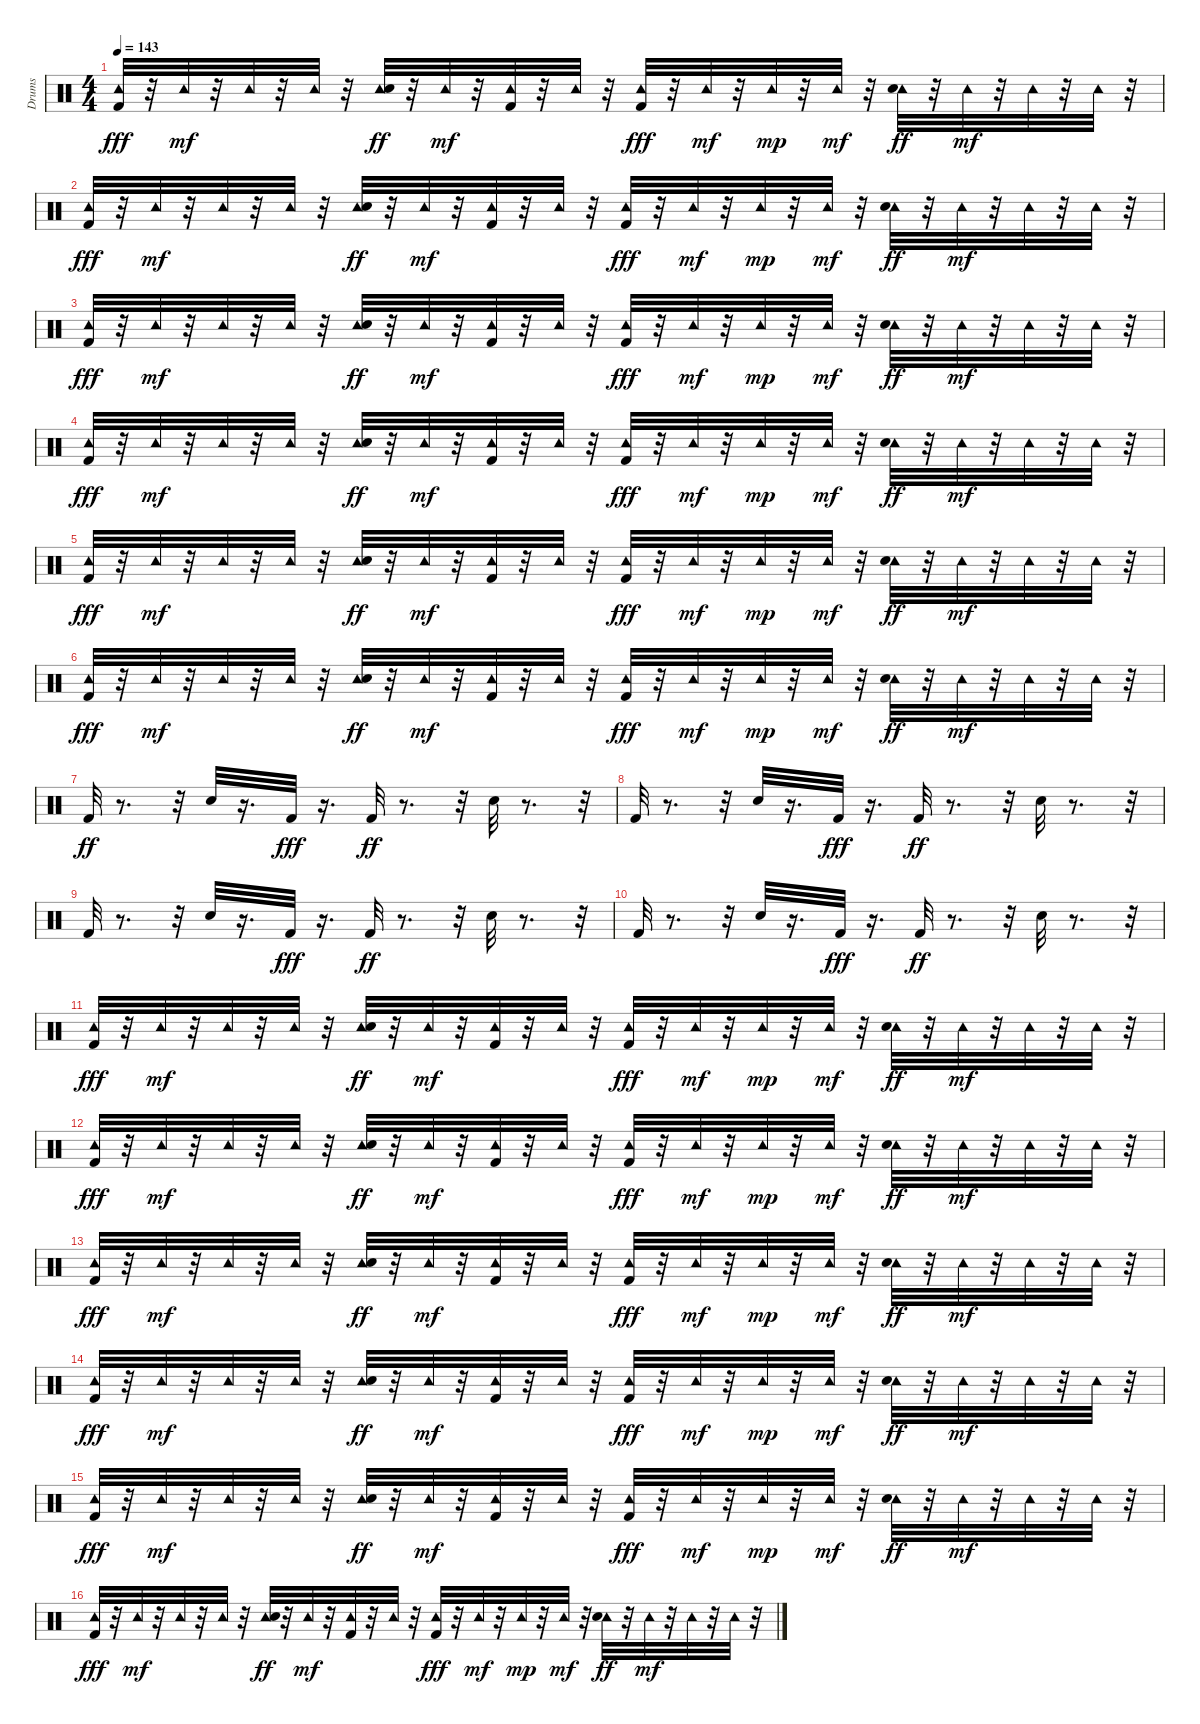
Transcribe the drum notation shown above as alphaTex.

\track ("Drums" "Drums") {instrument percussion}
\staff {score}
\articulation defaults
\ts (4 4)
\tempo 143
\clef neutral
\ks c
("Kick (hit) 2" "Tambourine (hit)").32{dy fff} r.32 "Tambourine (hit)".32{dy mf} r.32 "Tambourine (hit)".32 r.32 "Tambourine (hit)".32 r.32 ("Tambourine (hit)" "Snare (hit) 2").32{dy ff} r.32 "Tambourine (hit)".32{dy mf} r.32 ("Kick (hit) 2" "Tambourine (hit)").32 r.32 "Tambourine (hit)".32 r.32 ("Kick (hit) 2" "Tambourine (hit)").32{dy fff} r.32 "Tambourine (hit)".32{dy mf} r.32 "Tambourine (hit)".32{dy mp} r.32 "Tambourine (hit)".32{dy mf} r.32 ("Tambourine (hit)" "Snare (hit) 2").32{dy ff} r.32 "Tambourine (hit)".32{dy mf} r.32 "Tambourine (hit)".32 r.32 "Tambourine (hit)".32 r.32 |
("Kick (hit) 2" "Tambourine (hit)").32{dy fff} r.32 "Tambourine (hit)".32{dy mf} r.32 "Tambourine (hit)".32 r.32 "Tambourine (hit)".32 r.32 ("Tambourine (hit)" "Snare (hit) 2").32{dy ff} r.32 "Tambourine (hit)".32{dy mf} r.32 ("Kick (hit) 2" "Tambourine (hit)").32 r.32 "Tambourine (hit)".32 r.32 ("Kick (hit) 2" "Tambourine (hit)").32{dy fff} r.32 "Tambourine (hit)".32{dy mf} r.32 "Tambourine (hit)".32{dy mp} r.32 "Tambourine (hit)".32{dy mf} r.32 ("Tambourine (hit)" "Snare (hit) 2").32{dy ff} r.32 "Tambourine (hit)".32{dy mf} r.32 "Tambourine (hit)".32 r.32 "Tambourine (hit)".32 r.32 |
("Kick (hit) 2" "Tambourine (hit)").32{dy fff} r.32 "Tambourine (hit)".32{dy mf} r.32 "Tambourine (hit)".32 r.32 "Tambourine (hit)".32 r.32 ("Tambourine (hit)" "Snare (hit) 2").32{dy ff} r.32 "Tambourine (hit)".32{dy mf} r.32 ("Kick (hit) 2" "Tambourine (hit)").32 r.32 "Tambourine (hit)".32 r.32 ("Kick (hit) 2" "Tambourine (hit)").32{dy fff} r.32 "Tambourine (hit)".32{dy mf} r.32 "Tambourine (hit)".32{dy mp} r.32 "Tambourine (hit)".32{dy mf} r.32 ("Tambourine (hit)" "Snare (hit) 2").32{dy ff} r.32 "Tambourine (hit)".32{dy mf} r.32 "Tambourine (hit)".32 r.32 "Tambourine (hit)".32 r.32 |
("Kick (hit) 2" "Tambourine (hit)").32{dy fff} r.32 "Tambourine (hit)".32{dy mf} r.32 "Tambourine (hit)".32 r.32 "Tambourine (hit)".32 r.32 ("Tambourine (hit)" "Snare (hit) 2").32{dy ff} r.32 "Tambourine (hit)".32{dy mf} r.32 ("Kick (hit) 2" "Tambourine (hit)").32 r.32 "Tambourine (hit)".32 r.32 ("Kick (hit) 2" "Tambourine (hit)").32{dy fff} r.32 "Tambourine (hit)".32{dy mf} r.32 "Tambourine (hit)".32{dy mp} r.32 "Tambourine (hit)".32{dy mf} r.32 ("Tambourine (hit)" "Snare (hit) 2").32{dy ff} r.32 "Tambourine (hit)".32{dy mf} r.32 "Tambourine (hit)".32 r.32 "Tambourine (hit)".32 r.32 |
("Kick (hit) 2" "Tambourine (hit)").32{dy fff} r.32 "Tambourine (hit)".32{dy mf} r.32 "Tambourine (hit)".32 r.32 "Tambourine (hit)".32 r.32 ("Tambourine (hit)" "Snare (hit) 2").32{dy ff} r.32 "Tambourine (hit)".32{dy mf} r.32 ("Kick (hit) 2" "Tambourine (hit)").32 r.32 "Tambourine (hit)".32 r.32 ("Kick (hit) 2" "Tambourine (hit)").32{dy fff} r.32 "Tambourine (hit)".32{dy mf} r.32 "Tambourine (hit)".32{dy mp} r.32 "Tambourine (hit)".32{dy mf} r.32 ("Tambourine (hit)" "Snare (hit) 2").32{dy ff} r.32 "Tambourine (hit)".32{dy mf} r.32 "Tambourine (hit)".32 r.32 "Tambourine (hit)".32 r.32 |
("Kick (hit) 2" "Tambourine (hit)").32{dy fff} r.32 "Tambourine (hit)".32{dy mf} r.32 "Tambourine (hit)".32 r.32 "Tambourine (hit)".32 r.32 ("Tambourine (hit)" "Snare (hit) 2").32{dy ff} r.32 "Tambourine (hit)".32{dy mf} r.32 ("Kick (hit) 2" "Tambourine (hit)").32 r.32 "Tambourine (hit)".32 r.32 ("Kick (hit) 2" "Tambourine (hit)").32{dy fff} r.32 "Tambourine (hit)".32{dy mf} r.32 "Tambourine (hit)".32{dy mp} r.32 "Tambourine (hit)".32{dy mf} r.32 ("Tambourine (hit)" "Snare (hit) 2").32{dy ff} r.32 "Tambourine (hit)".32{dy mf} r.32 "Tambourine (hit)".32 r.32 "Tambourine (hit)".32 r.32 |
"Kick (hit) 2".32{dy ff} r.8{d} r.32 "Snare (hit) 2".32 r.16{d} "Kick (hit) 2".32{dy fff} r.16{d} "Kick (hit) 2".32{dy ff} r.8{d} r.32 "Snare (hit) 2".32 r.8{d} r.32 |
"Kick (hit) 2".32 r.8{d} r.32 "Snare (hit) 2".32 r.16{d} "Kick (hit) 2".32{dy fff} r.16{d} "Kick (hit) 2".32{dy ff} r.8{d} r.32 "Snare (hit) 2".32 r.8{d} r.32 |
"Kick (hit) 2".32 r.8{d} r.32 "Snare (hit) 2".32 r.16{d} "Kick (hit) 2".32{dy fff} r.16{d} "Kick (hit) 2".32{dy ff} r.8{d} r.32 "Snare (hit) 2".32 r.8{d} r.32 |
"Kick (hit) 2".32 r.8{d} r.32 "Snare (hit) 2".32 r.16{d} "Kick (hit) 2".32{dy fff} r.16{d} "Kick (hit) 2".32{dy ff} r.8{d} r.32 "Snare (hit) 2".32 r.8{d} r.32 |
("Kick (hit) 2" "Tambourine (hit)").32{dy fff} r.32 "Tambourine (hit)".32{dy mf} r.32 "Tambourine (hit)".32 r.32 "Tambourine (hit)".32 r.32 ("Tambourine (hit)" "Snare (hit) 2").32{dy ff} r.32 "Tambourine (hit)".32{dy mf} r.32 ("Kick (hit) 2" "Tambourine (hit)").32 r.32 "Tambourine (hit)".32 r.32 ("Kick (hit) 2" "Tambourine (hit)").32{dy fff} r.32 "Tambourine (hit)".32{dy mf} r.32 "Tambourine (hit)".32{dy mp} r.32 "Tambourine (hit)".32{dy mf} r.32 ("Tambourine (hit)" "Snare (hit) 2").32{dy ff} r.32 "Tambourine (hit)".32{dy mf} r.32 "Tambourine (hit)".32 r.32 "Tambourine (hit)".32 r.32 |
("Kick (hit) 2" "Tambourine (hit)").32{dy fff} r.32 "Tambourine (hit)".32{dy mf} r.32 "Tambourine (hit)".32 r.32 "Tambourine (hit)".32 r.32 ("Tambourine (hit)" "Snare (hit) 2").32{dy ff} r.32 "Tambourine (hit)".32{dy mf} r.32 ("Kick (hit) 2" "Tambourine (hit)").32 r.32 "Tambourine (hit)".32 r.32 ("Kick (hit) 2" "Tambourine (hit)").32{dy fff} r.32 "Tambourine (hit)".32{dy mf} r.32 "Tambourine (hit)".32{dy mp} r.32 "Tambourine (hit)".32{dy mf} r.32 ("Tambourine (hit)" "Snare (hit) 2").32{dy ff} r.32 "Tambourine (hit)".32{dy mf} r.32 "Tambourine (hit)".32 r.32 "Tambourine (hit)".32 r.32 |
("Kick (hit) 2" "Tambourine (hit)").32{dy fff} r.32 "Tambourine (hit)".32{dy mf} r.32 "Tambourine (hit)".32 r.32 "Tambourine (hit)".32 r.32 ("Tambourine (hit)" "Snare (hit) 2").32{dy ff} r.32 "Tambourine (hit)".32{dy mf} r.32 ("Kick (hit) 2" "Tambourine (hit)").32 r.32 "Tambourine (hit)".32 r.32 ("Kick (hit) 2" "Tambourine (hit)").32{dy fff} r.32 "Tambourine (hit)".32{dy mf} r.32 "Tambourine (hit)".32{dy mp} r.32 "Tambourine (hit)".32{dy mf} r.32 ("Tambourine (hit)" "Snare (hit) 2").32{dy ff} r.32 "Tambourine (hit)".32{dy mf} r.32 "Tambourine (hit)".32 r.32 "Tambourine (hit)".32 r.32 |
("Kick (hit) 2" "Tambourine (hit)").32{dy fff} r.32 "Tambourine (hit)".32{dy mf} r.32 "Tambourine (hit)".32 r.32 "Tambourine (hit)".32 r.32 ("Tambourine (hit)" "Snare (hit) 2").32{dy ff} r.32 "Tambourine (hit)".32{dy mf} r.32 ("Kick (hit) 2" "Tambourine (hit)").32 r.32 "Tambourine (hit)".32 r.32 ("Kick (hit) 2" "Tambourine (hit)").32{dy fff} r.32 "Tambourine (hit)".32{dy mf} r.32 "Tambourine (hit)".32{dy mp} r.32 "Tambourine (hit)".32{dy mf} r.32 ("Tambourine (hit)" "Snare (hit) 2").32{dy ff} r.32 "Tambourine (hit)".32{dy mf} r.32 "Tambourine (hit)".32 r.32 "Tambourine (hit)".32 r.32 |
("Kick (hit) 2" "Tambourine (hit)").32{dy fff} r.32 "Tambourine (hit)".32{dy mf} r.32 "Tambourine (hit)".32 r.32 "Tambourine (hit)".32 r.32 ("Tambourine (hit)" "Snare (hit) 2").32{dy ff} r.32 "Tambourine (hit)".32{dy mf} r.32 ("Kick (hit) 2" "Tambourine (hit)").32 r.32 "Tambourine (hit)".32 r.32 ("Kick (hit) 2" "Tambourine (hit)").32{dy fff} r.32 "Tambourine (hit)".32{dy mf} r.32 "Tambourine (hit)".32{dy mp} r.32 "Tambourine (hit)".32{dy mf} r.32 ("Tambourine (hit)" "Snare (hit) 2").32{dy ff} r.32 "Tambourine (hit)".32{dy mf} r.32 "Tambourine (hit)".32 r.32 "Tambourine (hit)".32 r.32 |
("Kick (hit) 2" "Tambourine (hit)").32{dy fff} r.32 "Tambourine (hit)".32{dy mf} r.32 "Tambourine (hit)".32 r.32 "Tambourine (hit)".32 r.32 ("Tambourine (hit)" "Snare (hit) 2").32{dy ff} r.32 "Tambourine (hit)".32{dy mf} r.32 ("Kick (hit) 2" "Tambourine (hit)").32 r.32 "Tambourine (hit)".32 r.32 ("Kick (hit) 2" "Tambourine (hit)").32{dy fff} r.32 "Tambourine (hit)".32{dy mf} r.32 "Tambourine (hit)".32{dy mp} r.32 "Tambourine (hit)".32{dy mf} r.32 ("Tambourine (hit)" "Snare (hit) 2").32{dy ff} r.32 "Tambourine (hit)".32{dy mf} r.32 "Tambourine (hit)".32 r.32 "Tambourine (hit)".32 r.32
